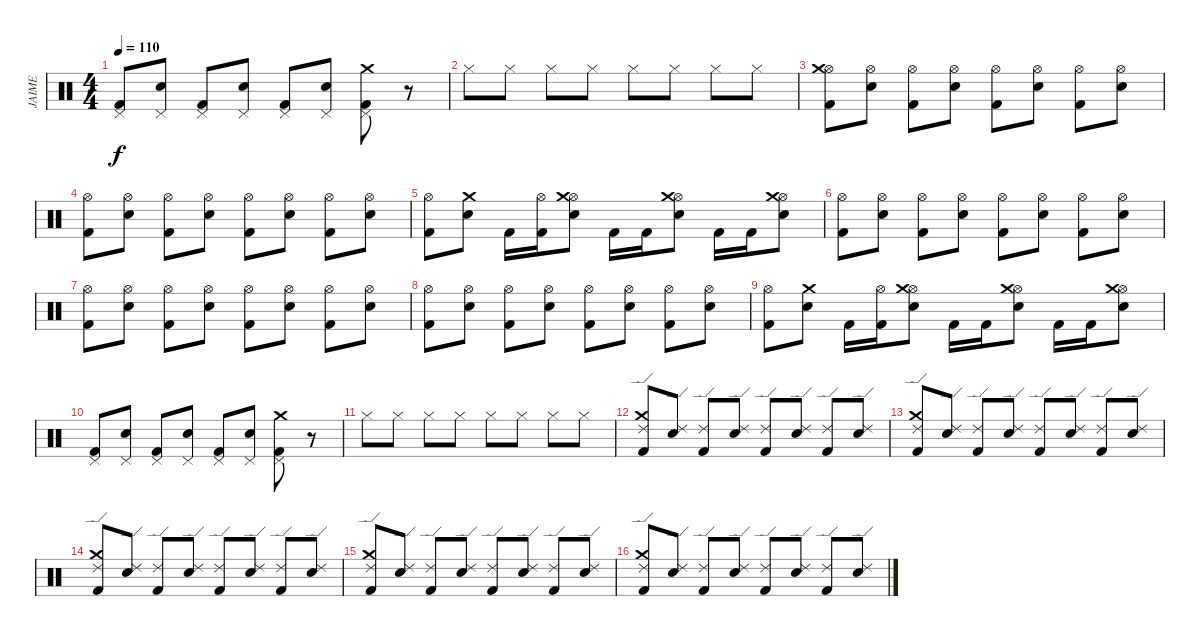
\track ("JAIME" "JAIME") {instrument percussion}
\staff {score}
\articulation defaults
\ts (4 4)
\tempo 110
\clef neutral
\ks c
("Kick (hit) 2" "Pedal Hi-Hat (hit)").8{dy f} ("Electric Snare (hit)" "Pedal Hi-Hat (hit)").8 ("Kick (hit) 2" "Pedal Hi-Hat (hit)").8 ("Electric Snare (hit)" "Pedal Hi-Hat (hit)").8 ("Kick (hit) 2" "Pedal Hi-Hat (hit)").8 ("Electric Snare (hit)" "Pedal Hi-Hat (hit)").8 ("Kick (hit) 2" "Crash medium (hit)" "Pedal Hi-Hat (hit)").8 r.8 |
"Hi-Hat (closed)".8 "Hi-Hat (closed)".8 "Hi-Hat (closed)".8 "Hi-Hat (closed)".8 "Hi-Hat (closed)".8 "Hi-Hat (closed)".8 "Hi-Hat (closed)".8 "Hi-Hat (closed)".8 |
("Kick (hit) 2" "Hi-Hat (open)" "Crash medium (hit)").8 ("Electric Snare (hit)" "Hi-Hat (open)").8 ("Kick (hit) 2" "Hi-Hat (open)").8 ("Electric Snare (hit)" "Hi-Hat (open)").8 ("Kick (hit) 2" "Hi-Hat (open)").8 ("Electric Snare (hit)" "Hi-Hat (open)").8 ("Kick (hit) 2" "Hi-Hat (open)").8 ("Electric Snare (hit)" "Hi-Hat (open)").8 |
("Kick (hit) 2" "Hi-Hat (open)").8 ("Electric Snare (hit)" "Hi-Hat (open)").8 ("Kick (hit) 2" "Hi-Hat (open)").8 ("Electric Snare (hit)" "Hi-Hat (open)").8 ("Kick (hit) 2" "Hi-Hat (open)").8 ("Electric Snare (hit)" "Hi-Hat (open)").8 ("Kick (hit) 2" "Hi-Hat (open)").8 ("Electric Snare (hit)" "Hi-Hat (open)").8 |
("Kick (hit) 2" "Hi-Hat (open)").8 ("Electric Snare (hit)" "Crash medium (hit)").8 "Kick (hit) 2".16 ("Kick (hit) 2" "Hi-Hat (open)").16 ("Electric Snare (hit)" "Hi-Hat (open)" "Crash medium (hit)").8 "Kick (hit) 2".16 "Kick (hit) 2".16 ("Electric Snare (hit)" "Hi-Hat (open)" "Crash medium (hit)").8 "Kick (hit) 2".16 "Kick (hit) 2".16 ("Electric Snare (hit)" "Hi-Hat (open)" "Crash medium (hit)").8 |
("Kick (hit) 2" "Hi-Hat (open)").8 ("Electric Snare (hit)" "Hi-Hat (open)").8 ("Kick (hit) 2" "Hi-Hat (open)").8 ("Electric Snare (hit)" "Hi-Hat (open)").8 ("Kick (hit) 2" "Hi-Hat (open)").8 ("Electric Snare (hit)" "Hi-Hat (open)").8 ("Kick (hit) 2" "Hi-Hat (open)").8 ("Electric Snare (hit)" "Hi-Hat (open)").8 |
("Kick (hit) 2" "Hi-Hat (open)").8 ("Electric Snare (hit)" "Hi-Hat (open)").8 ("Kick (hit) 2" "Hi-Hat (open)").8 ("Electric Snare (hit)" "Hi-Hat (open)").8 ("Kick (hit) 2" "Hi-Hat (open)").8 ("Electric Snare (hit)" "Hi-Hat (open)").8 ("Kick (hit) 2" "Hi-Hat (open)").8 ("Electric Snare (hit)" "Hi-Hat (open)").8 |
("Kick (hit) 2" "Hi-Hat (open)").8 ("Electric Snare (hit)" "Hi-Hat (open)").8 ("Kick (hit) 2" "Hi-Hat (open)").8 ("Electric Snare (hit)" "Hi-Hat (open)").8 ("Kick (hit) 2" "Hi-Hat (open)").8 ("Electric Snare (hit)" "Hi-Hat (open)").8 ("Kick (hit) 2" "Hi-Hat (open)").8 ("Electric Snare (hit)" "Hi-Hat (open)").8 |
("Kick (hit) 2" "Hi-Hat (open)").8 ("Electric Snare (hit)" "Crash medium (hit)").8 "Kick (hit) 2".16 ("Kick (hit) 2" "Hi-Hat (open)").16 ("Electric Snare (hit)" "Hi-Hat (open)" "Crash medium (hit)").8 "Kick (hit) 2".16 "Kick (hit) 2".16 ("Electric Snare (hit)" "Hi-Hat (open)" "Crash medium (hit)").8 "Kick (hit) 2".16 "Kick (hit) 2".16 ("Electric Snare (hit)" "Hi-Hat (open)" "Crash medium (hit)").8 |
("Kick (hit) 2" "Pedal Hi-Hat (hit)").8 ("Electric Snare (hit)" "Pedal Hi-Hat (hit)").8 ("Kick (hit) 2" "Pedal Hi-Hat (hit)").8 ("Electric Snare (hit)" "Pedal Hi-Hat (hit)").8 ("Kick (hit) 2" "Pedal Hi-Hat (hit)").8 ("Electric Snare (hit)" "Pedal Hi-Hat (hit)").8 ("Kick (hit) 2" "Crash medium (hit)" "Pedal Hi-Hat (hit)").8 r.8 |
"Hi-Hat (closed)".8 "Hi-Hat (closed)".8 "Hi-Hat (closed)".8 "Hi-Hat (closed)".8 "Hi-Hat (closed)".8 "Hi-Hat (closed)".8 "Hi-Hat (closed)".8 "Hi-Hat (closed)".8 |
("Kick (hit) 2" "Ride (edge) 2" "Crash medium (hit)").8 ("Electric Snare (hit)" "Ride (edge) 2").8 ("Kick (hit) 2" "Ride (edge) 2").8 ("Electric Snare (hit)" "Ride (edge) 2").8 ("Kick (hit) 2" "Ride (edge) 2").8 ("Electric Snare (hit)" "Ride (edge) 2").8 ("Kick (hit) 2" "Ride (edge) 2").8 ("Electric Snare (hit)" "Ride (edge) 2").8 |
("Kick (hit) 2" "Ride (edge) 2" "Crash medium (hit)").8 ("Electric Snare (hit)" "Ride (edge) 2").8 ("Kick (hit) 2" "Ride (edge) 2").8 ("Electric Snare (hit)" "Ride (edge) 2").8 ("Kick (hit) 2" "Ride (edge) 2").8 ("Electric Snare (hit)" "Ride (edge) 2").8 ("Kick (hit) 2" "Ride (edge) 2").8 ("Electric Snare (hit)" "Ride (edge) 2").8 |
("Kick (hit) 2" "Ride (edge) 2" "Crash medium (hit)").8 ("Electric Snare (hit)" "Ride (edge) 2").8 ("Kick (hit) 2" "Ride (edge) 2").8 ("Electric Snare (hit)" "Ride (edge) 2").8 ("Kick (hit) 2" "Ride (edge) 2").8 ("Electric Snare (hit)" "Ride (edge) 2").8 ("Kick (hit) 2" "Ride (edge) 2").8 ("Electric Snare (hit)" "Ride (edge) 2").8 |
("Kick (hit) 2" "Ride (edge) 2" "Crash medium (hit)").8 ("Electric Snare (hit)" "Ride (edge) 2").8 ("Kick (hit) 2" "Ride (edge) 2").8 ("Electric Snare (hit)" "Ride (edge) 2").8 ("Kick (hit) 2" "Ride (edge) 2").8 ("Electric Snare (hit)" "Ride (edge) 2").8 ("Kick (hit) 2" "Ride (edge) 2").8 ("Electric Snare (hit)" "Ride (edge) 2").8 |
("Kick (hit) 2" "Ride (edge) 2" "Crash medium (hit)").8 ("Electric Snare (hit)" "Ride (edge) 2").8 ("Kick (hit) 2" "Ride (edge) 2").8 ("Electric Snare (hit)" "Ride (edge) 2").8 ("Kick (hit) 2" "Ride (edge) 2").8 ("Electric Snare (hit)" "Ride (edge) 2").8 ("Kick (hit) 2" "Ride (edge) 2").8 ("Electric Snare (hit)" "Ride (edge) 2").8
